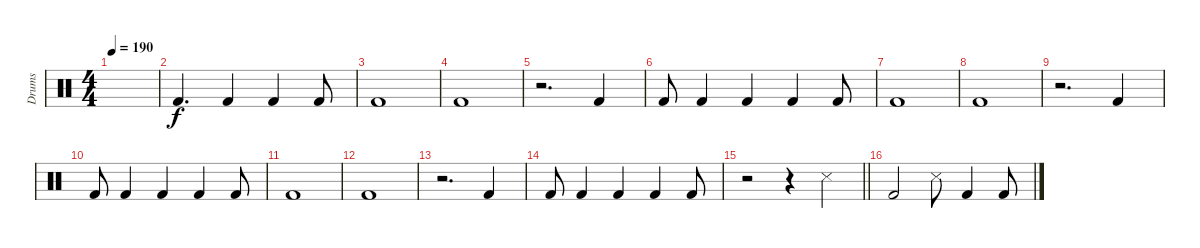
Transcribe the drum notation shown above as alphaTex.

\track ("Drums" "Drums") {instrument percussion}
\staff {score}
\articulation defaults
\ts (4 4)
\tempo 190
\clef neutral
\ks c
|
"Kick (hit) 2".4{d} "Kick (hit) 2".4 "Kick (hit) 2".4 "Kick (hit) 2".8 |
"Kick (hit) 2".1 |
"Kick (hit) 2".1 |
r.2{d} "Kick (hit) 2".4 |
"Kick (hit) 2".8 "Kick (hit) 2".4 "Kick (hit) 2".4 "Kick (hit) 2".4 "Kick (hit) 2".8 |
"Kick (hit) 2".1 |
"Kick (hit) 2".1 |
r.2{d} "Kick (hit) 2".4 |
"Kick (hit) 2".8 "Kick (hit) 2".4 "Kick (hit) 2".4 "Kick (hit) 2".4 "Kick (hit) 2".8 |
"Kick (hit) 2".1 |
"Kick (hit) 2".1 |
r.2{d} "Kick (hit) 2".4 |
"Kick (hit) 2".8 "Kick (hit) 2".4 "Kick (hit) 2".4 "Kick (hit) 2".4 "Kick (hit) 2".8 |
\barLineRight lightlight
r.2 r.4 "Snare (side stick) 3".4 |
"Kick (hit) 2".2 "Snare (side stick) 3".8 "Kick (hit) 2".4 "Kick (hit) 2".8
